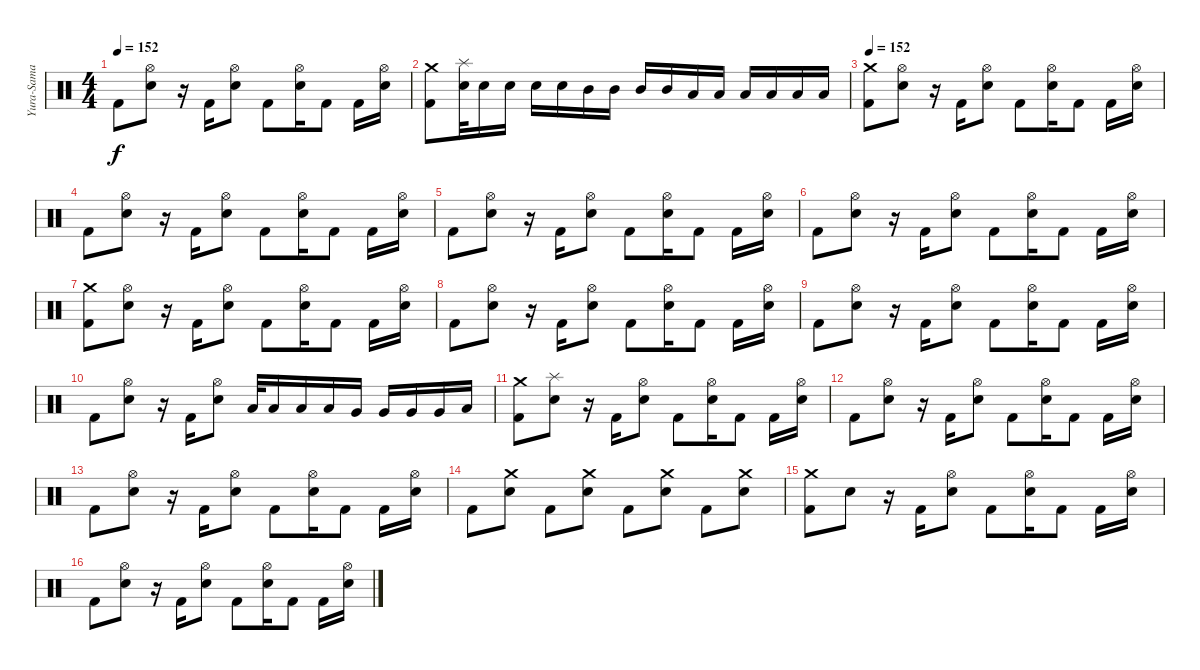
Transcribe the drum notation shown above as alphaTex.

\track ("Yura-Sama" "Yura-Sama") {instrument percussion}
\staff {score}
\articulation defaults
\ts (4 4)
\tempo 152
\clef neutral
\ks c "Kick (hit) 2".8{dy f}
("Electric Snare (hit)" "Hi-Hat (open)").8 r.16 "Kick (hit) 2".16 ("Electric Snare (hit)" "Hi-Hat (open)").8 "Kick (hit) 2".8 ("Electric Snare (hit)" "Hi-Hat (open)").16 "Kick (hit) 2".8 "Kick (hit) 2".16 ("Electric Snare (hit)" "Hi-Hat (open)").16 |
("Kick (hit) 2" "Crash medium (hit)").8 ("Electric Snare (hit)" "Splash (hit)").32 "Electric Snare (hit)".16 "Electric Snare (hit)".16 "Electric Snare (hit)".16 "Electric Snare (hit)".16 "Mid Tom (hit)".16 "Mid Tom (hit)".16 "Mid Tom (hit)".16 "Mid Tom (hit)".16 "Low Tom (hit)".16 "Low Tom (hit)".16 "Low Tom (hit)".16 "Low Tom (hit)".16 "Low Floor Tom (hit)".16 "Low Floor Tom (hit)".16 |
\tempo 152
("Kick (hit) 2" "Crash medium (hit)").8 ("Electric Snare (hit)" "Hi-Hat (open)").8 r.16 "Kick (hit) 2".16 ("Electric Snare (hit)" "Hi-Hat (open)").8 "Kick (hit) 2".8 ("Electric Snare (hit)" "Hi-Hat (open)").16 "Kick (hit) 2".8 "Kick (hit) 2".16 ("Electric Snare (hit)" "Hi-Hat (open)").16 |
"Kick (hit) 2".8 ("Electric Snare (hit)" "Hi-Hat (open)").8 r.16 "Kick (hit) 2".16 ("Electric Snare (hit)" "Hi-Hat (open)").8 "Kick (hit) 2".8 ("Electric Snare (hit)" "Hi-Hat (open)").16 "Kick (hit) 2".8 "Kick (hit) 2".16 ("Electric Snare (hit)" "Hi-Hat (open)").16 |
"Kick (hit) 2".8 ("Electric Snare (hit)" "Hi-Hat (open)").8 r.16 "Kick (hit) 2".16 ("Electric Snare (hit)" "Hi-Hat (open)").8 "Kick (hit) 2".8 ("Electric Snare (hit)" "Hi-Hat (open)").16 "Kick (hit) 2".8 "Kick (hit) 2".16 ("Electric Snare (hit)" "Hi-Hat (open)").16 |
"Kick (hit) 2".8 ("Electric Snare (hit)" "Hi-Hat (open)").8 r.16 "Kick (hit) 2".16 ("Electric Snare (hit)" "Hi-Hat (open)").8 "Kick (hit) 2".8 ("Electric Snare (hit)" "Hi-Hat (open)").16 "Kick (hit) 2".8 "Kick (hit) 2".16 ("Electric Snare (hit)" "Hi-Hat (open)").16 |
("Kick (hit) 2" "Crash medium (hit)").8 ("Electric Snare (hit)" "Hi-Hat (open)").8 r.16 "Kick (hit) 2".16 ("Electric Snare (hit)" "Hi-Hat (open)").8 "Kick (hit) 2".8 ("Electric Snare (hit)" "Hi-Hat (open)").16 "Kick (hit) 2".8 "Kick (hit) 2".16 ("Electric Snare (hit)" "Hi-Hat (open)").16 |
"Kick (hit) 2".8 ("Electric Snare (hit)" "Hi-Hat (open)").8 r.16 "Kick (hit) 2".16 ("Electric Snare (hit)" "Hi-Hat (open)").8 "Kick (hit) 2".8 ("Electric Snare (hit)" "Hi-Hat (open)").16 "Kick (hit) 2".8 "Kick (hit) 2".16 ("Electric Snare (hit)" "Hi-Hat (open)").16 |
"Kick (hit) 2".8 ("Electric Snare (hit)" "Hi-Hat (open)").8 r.16 "Kick (hit) 2".16 ("Electric Snare (hit)" "Hi-Hat (open)").8 "Kick (hit) 2".8 ("Electric Snare (hit)" "Hi-Hat (open)").16 "Kick (hit) 2".8 "Kick (hit) 2".16 ("Electric Snare (hit)" "Hi-Hat (open)").16 |
"Kick (hit) 2".8 ("Electric Snare (hit)" "Hi-Hat (open)").8 r.16 "Kick (hit) 2".16 ("Electric Snare (hit)" "Hi-Hat (open)").8 "Low Tom (hit)".32 "Low Tom (hit)".16 "Low Tom (hit)".16 "Low Tom (hit)".16 "Very Low Tom (hit)".16 "Very Low Tom (hit)".16 "Very Low Tom (hit)".16 "Very Low Tom (hit)".16 "Low Floor Tom (hit)".16 |
("Kick (hit) 2" "Crash medium (hit)").8 ("Electric Snare (hit)" "Splash (hit)").8 r.16 "Kick (hit) 2".16 ("Electric Snare (hit)" "Hi-Hat (open)").8 "Kick (hit) 2".8 ("Electric Snare (hit)" "Hi-Hat (open)").16 "Kick (hit) 2".8 "Kick (hit) 2".16 ("Electric Snare (hit)" "Hi-Hat (open)").16 |
"Kick (hit) 2".8 ("Electric Snare (hit)" "Hi-Hat (open)").8 r.16 "Kick (hit) 2".16 ("Electric Snare (hit)" "Hi-Hat (open)").8 "Kick (hit) 2".8 ("Electric Snare (hit)" "Hi-Hat (open)").16 "Kick (hit) 2".8 "Kick (hit) 2".16 ("Electric Snare (hit)" "Hi-Hat (open)").16 |
"Kick (hit) 2".8 ("Electric Snare (hit)" "Hi-Hat (open)").8 r.16 "Kick (hit) 2".16 ("Electric Snare (hit)" "Hi-Hat (open)").8 "Kick (hit) 2".8 ("Electric Snare (hit)" "Hi-Hat (open)").16 "Kick (hit) 2".8 "Kick (hit) 2".16 ("Electric Snare (hit)" "Hi-Hat (open)").16 |
"Kick (hit) 2".8 ("Electric Snare (hit)" "Crash medium (hit)").8 "Kick (hit) 2".8 ("Electric Snare (hit)" "Crash medium (hit)").8 "Kick (hit) 2".8 ("Electric Snare (hit)" "Crash medium (hit)").8 "Kick (hit) 2".8 ("Electric Snare (hit)" "Crash medium (hit)").8 |
("Kick (hit) 2" "Crash medium (hit)").8 "Electric Snare (hit)".8 r.16 "Kick (hit) 2".16 ("Electric Snare (hit)" "Hi-Hat (open)").8 "Kick (hit) 2".8 ("Electric Snare (hit)" "Hi-Hat (open)").16 "Kick (hit) 2".8 "Kick (hit) 2".16 ("Electric Snare (hit)" "Hi-Hat (open)").16 |
"Kick (hit) 2".8 ("Electric Snare (hit)" "Hi-Hat (open)").8 r.16 "Kick (hit) 2".16 ("Electric Snare (hit)" "Hi-Hat (open)").8 "Kick (hit) 2".8 ("Electric Snare (hit)" "Hi-Hat (open)").16 "Kick (hit) 2".8 "Kick (hit) 2".16 ("Electric Snare (hit)" "Hi-Hat (open)").16
